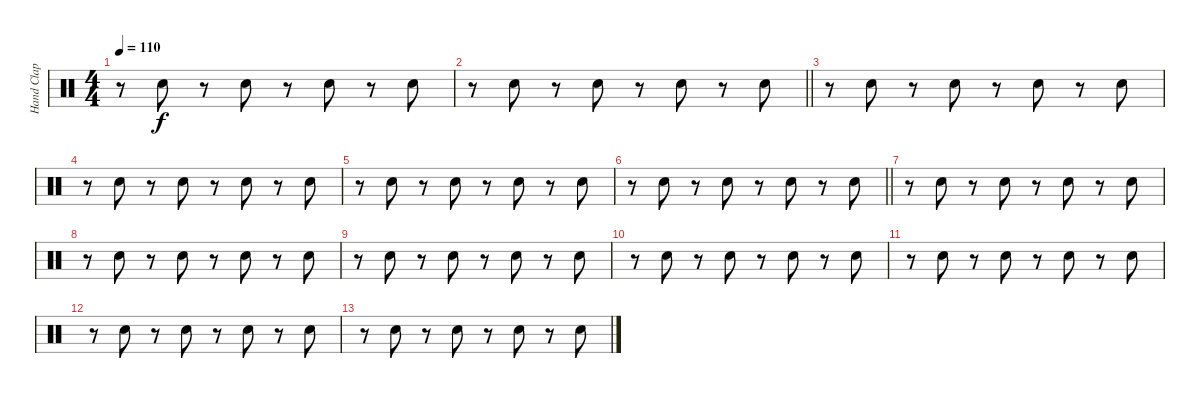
\track ("Hand Clap" "Hand Clap") {instrument percussion}
\staff {score}
\articulation defaults
\ts (4 4)
\tempo 110
\clef neutral
\ks c
r.8{dy f} "Hand Clap (hit)".8 r.8 "Hand Clap (hit)".8 r.8 "Hand Clap (hit)".8 r.8 "Hand Clap (hit)".8 |
\barLineRight lightlight
r.8 "Hand Clap (hit)".8 r.8 "Hand Clap (hit)".8 r.8 "Hand Clap (hit)".8 r.8 "Hand Clap (hit)".8 |
r.8 "Hand Clap (hit)".8 r.8 "Hand Clap (hit)".8 r.8 "Hand Clap (hit)".8 r.8 "Hand Clap (hit)".8 |
r.8 "Hand Clap (hit)".8 r.8 "Hand Clap (hit)".8 r.8 "Hand Clap (hit)".8 r.8 "Hand Clap (hit)".8 |
r.8 "Hand Clap (hit)".8 r.8 "Hand Clap (hit)".8 r.8 "Hand Clap (hit)".8 r.8 "Hand Clap (hit)".8 |
\barLineRight lightlight
r.8 "Hand Clap (hit)".8 r.8 "Hand Clap (hit)".8 r.8 "Hand Clap (hit)".8 r.8 "Hand Clap (hit)".8 |
r.8 "Hand Clap (hit)".8 r.8 "Hand Clap (hit)".8 r.8 "Hand Clap (hit)".8 r.8 "Hand Clap (hit)".8 |
r.8 "Hand Clap (hit)".8 r.8 "Hand Clap (hit)".8 r.8 "Hand Clap (hit)".8 r.8 "Hand Clap (hit)".8 |
r.8 "Hand Clap (hit)".8 r.8 "Hand Clap (hit)".8 r.8 "Hand Clap (hit)".8 r.8 "Hand Clap (hit)".8 |
r.8 "Hand Clap (hit)".8 r.8 "Hand Clap (hit)".8 r.8 "Hand Clap (hit)".8 r.8 "Hand Clap (hit)".8 |
r.8 "Hand Clap (hit)".8 r.8 "Hand Clap (hit)".8 r.8 "Hand Clap (hit)".8 r.8 "Hand Clap (hit)".8 |
r.8 "Hand Clap (hit)".8 r.8 "Hand Clap (hit)".8 r.8 "Hand Clap (hit)".8 r.8 "Hand Clap (hit)".8 |
r.8 "Hand Clap (hit)".8 r.8 "Hand Clap (hit)".8 r.8 "Hand Clap (hit)".8 r.8 "Hand Clap (hit)".8
